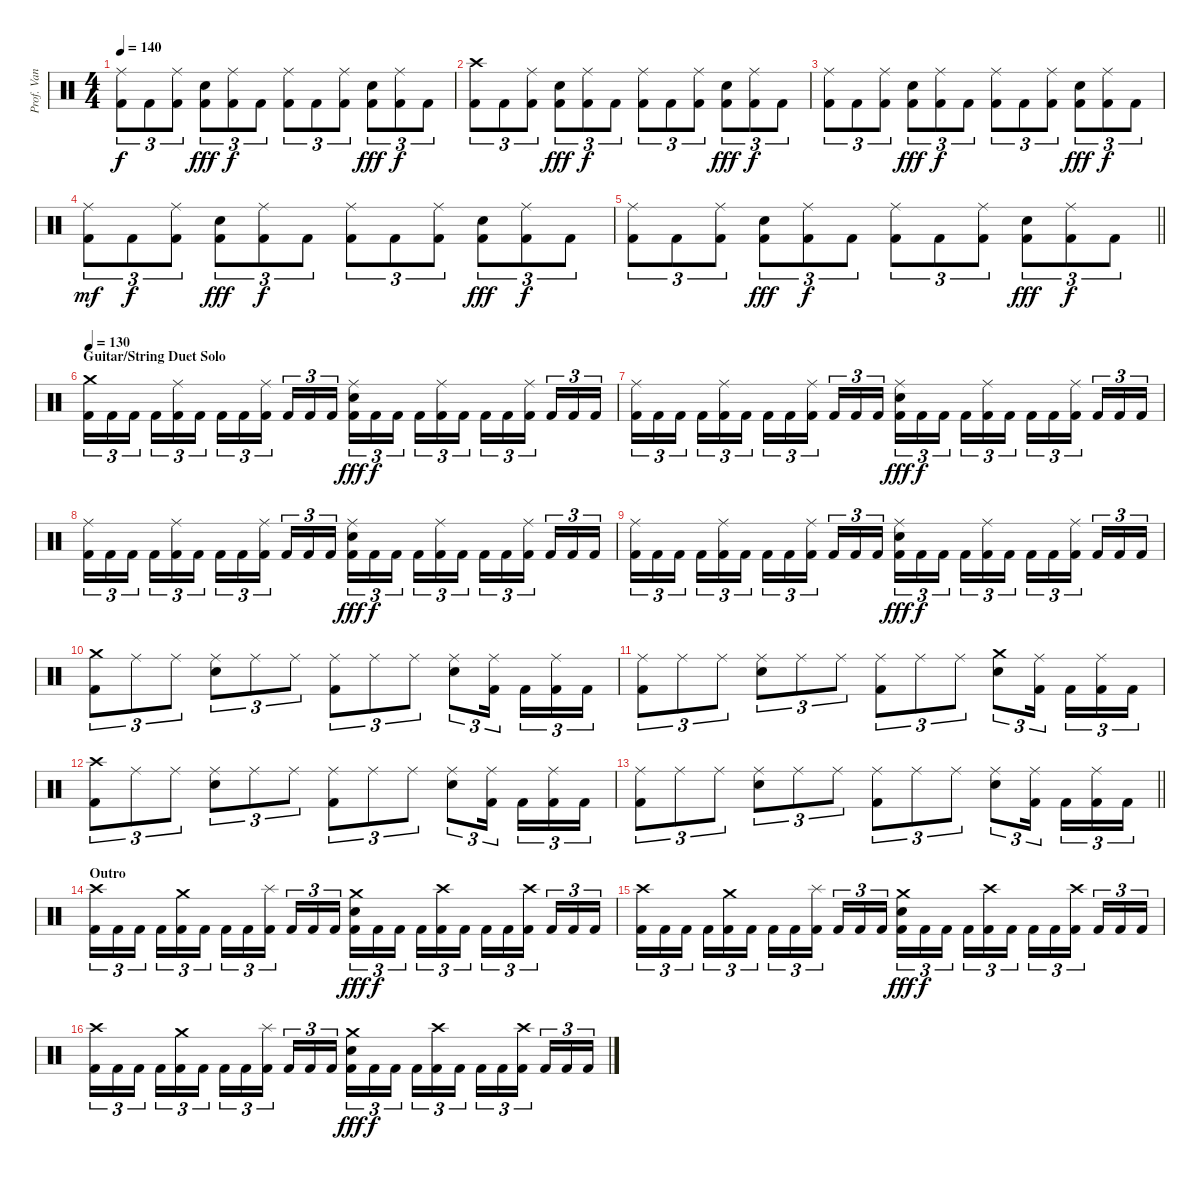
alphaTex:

\track ("Prof. Van Helsing (Drums)" "Prof. Van ") {instrument percussion}
\staff {score}
\articulation defaults
\ts (4 4)
\tempo 140
\clef neutral
\ks c
("Ride (middle)" "Kick (hit) 2").8{tu (3 2) dy f} "Kick (hit) 2".8{tu (3 2)} ("Ride (middle)" "Kick (hit) 2").8{tu (3 2)} ("Snare (hit) 2" "Kick (hit) 2").8{tu (3 2) dy fff} ("Ride (middle)" "Kick (hit) 2").8{tu (3 2) dy f} "Kick (hit) 2".8{tu (3 2)} ("Ride (middle)" "Kick (hit) 2").8{tu (3 2)} "Kick (hit) 2".8{tu (3 2)} ("Ride (middle)" "Kick (hit) 2").8{tu (3 2)} ("Snare (hit) 2" "Kick (hit) 2").8{tu (3 2) dy fff} ("Ride (middle)" "Kick (hit) 2").8{tu (3 2) dy f} "Kick (hit) 2".8{tu (3 2)} |
("Crash high (hit)" "Kick (hit) 2").8{tu (3 2)} "Kick (hit) 2".8{tu (3 2)} ("Ride (middle)" "Kick (hit) 2").8{tu (3 2)} ("Snare (hit) 2" "Kick (hit) 2").8{tu (3 2) dy fff} ("Ride (middle)" "Kick (hit) 2").8{tu (3 2) dy f} "Kick (hit) 2".8{tu (3 2)} ("Ride (middle)" "Kick (hit) 2").8{tu (3 2)} "Kick (hit) 2".8{tu (3 2)} ("Ride (middle)" "Kick (hit) 2").8{tu (3 2)} ("Snare (hit) 2" "Kick (hit) 2").8{tu (3 2) dy fff} ("Ride (middle)" "Kick (hit) 2").8{tu (3 2) dy f} "Kick (hit) 2".8{tu (3 2)} |
("Ride (middle)" "Kick (hit) 2").8{tu (3 2)} "Kick (hit) 2".8{tu (3 2)} ("Ride (middle)" "Kick (hit) 2").8{tu (3 2)} ("Snare (hit) 2" "Kick (hit) 2").8{tu (3 2) dy fff} ("Ride (middle)" "Kick (hit) 2").8{tu (3 2) dy f} "Kick (hit) 2".8{tu (3 2)} ("Ride (middle)" "Kick (hit) 2").8{tu (3 2)} "Kick (hit) 2".8{tu (3 2)} ("Ride (middle)" "Kick (hit) 2").8{tu (3 2)} ("Snare (hit) 2" "Kick (hit) 2").8{tu (3 2) dy fff} ("Ride (middle)" "Kick (hit) 2").8{tu (3 2) dy f} "Kick (hit) 2".8{tu (3 2)} |
("Ride (middle)" "Kick (hit) 2").8{tu (3 2) dy mf} "Kick (hit) 2".8{tu (3 2) dy f} ("Ride (middle)" "Kick (hit) 2").8{tu (3 2)} ("Snare (hit) 2" "Kick (hit) 2").8{tu (3 2) dy fff} ("Ride (middle)" "Kick (hit) 2").8{tu (3 2) dy f} "Kick (hit) 2".8{tu (3 2)} ("Ride (middle)" "Kick (hit) 2").8{tu (3 2)} "Kick (hit) 2".8{tu (3 2)} ("Ride (middle)" "Kick (hit) 2").8{tu (3 2)} ("Snare (hit) 2" "Kick (hit) 2").8{tu (3 2) dy fff} ("Ride (middle)" "Kick (hit) 2").8{tu (3 2) dy f} "Kick (hit) 2".8{tu (3 2)} |
\barLineRight lightlight
("Ride (middle)" "Kick (hit) 2").8{tu (3 2)} "Kick (hit) 2".8{tu (3 2)} ("Ride (middle)" "Kick (hit) 2").8{tu (3 2)} ("Snare (hit) 2" "Kick (hit) 2").8{tu (3 2) dy fff} ("Ride (middle)" "Kick (hit) 2").8{tu (3 2) dy f} "Kick (hit) 2".8{tu (3 2)} ("Ride (middle)" "Kick (hit) 2").8{tu (3 2)} "Kick (hit) 2".8{tu (3 2)} ("Ride (middle)" "Kick (hit) 2").8{tu (3 2)} ("Snare (hit) 2" "Kick (hit) 2").8{tu (3 2) dy fff} ("Ride (middle)" "Kick (hit) 2").8{tu (3 2) dy f} "Kick (hit) 2".8{tu (3 2)} |
\section ("" "Guitar/String Duet Solo")
\tempo 130
("Crash medium (hit)" "Kick (hit) 2").16{tu (3 2)} "Kick (hit) 2".16{tu (3 2)} "Kick (hit) 2".16{tu (3 2) beam splitsecondary} "Kick (hit) 2".16{tu (3 2)} ("Ride (middle)" "Kick (hit) 2").16{tu (3 2)} "Kick (hit) 2".16{tu (3 2)} "Kick (hit) 2".16{tu (3 2)} "Kick (hit) 2".16{tu (3 2)} ("Ride (middle)" "Kick (hit) 2").16{tu (3 2) beam splitsecondary} "Kick (hit) 2".16{tu (3 2)} "Kick (hit) 2".16{tu (3 2)} "Kick (hit) 2".16{tu (3 2)} ("Ride (middle)" "Snare (hit) 2" "Kick (hit) 2").16{tu (3 2) dy fff} "Kick (hit) 2".16{tu (3 2) dy f} "Kick (hit) 2".16{tu (3 2) beam splitsecondary} "Kick (hit) 2".16{tu (3 2)} ("Ride (middle)" "Kick (hit) 2").16{tu (3 2)} "Kick (hit) 2".16{tu (3 2)} "Kick (hit) 2".16{tu (3 2)} "Kick (hit) 2".16{tu (3 2)} ("Ride (middle)" "Kick (hit) 2").16{tu (3 2) beam splitsecondary} "Kick (hit) 2".16{tu (3 2)} "Kick (hit) 2".16{tu (3 2)} "Kick (hit) 2".16{tu (3 2)} |
("Ride (middle)" "Kick (hit) 2").16{tu (3 2)} "Kick (hit) 2".16{tu (3 2)} "Kick (hit) 2".16{tu (3 2) beam splitsecondary} "Kick (hit) 2".16{tu (3 2)} ("Ride (middle)" "Kick (hit) 2").16{tu (3 2)} "Kick (hit) 2".16{tu (3 2)} "Kick (hit) 2".16{tu (3 2)} "Kick (hit) 2".16{tu (3 2)} ("Ride (middle)" "Kick (hit) 2").16{tu (3 2) beam splitsecondary} "Kick (hit) 2".16{tu (3 2)} "Kick (hit) 2".16{tu (3 2)} "Kick (hit) 2".16{tu (3 2)} ("Ride (middle)" "Snare (hit) 2" "Kick (hit) 2").16{tu (3 2) dy fff} "Kick (hit) 2".16{tu (3 2) dy f} "Kick (hit) 2".16{tu (3 2) beam splitsecondary} "Kick (hit) 2".16{tu (3 2)} ("Ride (middle)" "Kick (hit) 2").16{tu (3 2)} "Kick (hit) 2".16{tu (3 2)} "Kick (hit) 2".16{tu (3 2)} "Kick (hit) 2".16{tu (3 2)} ("Ride (middle)" "Kick (hit) 2").16{tu (3 2) beam splitsecondary} "Kick (hit) 2".16{tu (3 2)} "Kick (hit) 2".16{tu (3 2)} "Kick (hit) 2".16{tu (3 2)} |
("Ride (middle)" "Kick (hit) 2").16{tu (3 2)} "Kick (hit) 2".16{tu (3 2)} "Kick (hit) 2".16{tu (3 2) beam splitsecondary} "Kick (hit) 2".16{tu (3 2)} ("Ride (middle)" "Kick (hit) 2").16{tu (3 2)} "Kick (hit) 2".16{tu (3 2)} "Kick (hit) 2".16{tu (3 2)} "Kick (hit) 2".16{tu (3 2)} ("Ride (middle)" "Kick (hit) 2").16{tu (3 2) beam splitsecondary} "Kick (hit) 2".16{tu (3 2)} "Kick (hit) 2".16{tu (3 2)} "Kick (hit) 2".16{tu (3 2)} ("Ride (middle)" "Snare (hit) 2" "Kick (hit) 2").16{tu (3 2) dy fff} "Kick (hit) 2".16{tu (3 2) dy f} "Kick (hit) 2".16{tu (3 2) beam splitsecondary} "Kick (hit) 2".16{tu (3 2)} ("Ride (middle)" "Kick (hit) 2").16{tu (3 2)} "Kick (hit) 2".16{tu (3 2)} "Kick (hit) 2".16{tu (3 2)} "Kick (hit) 2".16{tu (3 2)} ("Ride (middle)" "Kick (hit) 2").16{tu (3 2) beam splitsecondary} "Kick (hit) 2".16{tu (3 2)} "Kick (hit) 2".16{tu (3 2)} "Kick (hit) 2".16{tu (3 2)} |
("Ride (middle)" "Kick (hit) 2").16{tu (3 2)} "Kick (hit) 2".16{tu (3 2)} "Kick (hit) 2".16{tu (3 2) beam splitsecondary} "Kick (hit) 2".16{tu (3 2)} ("Ride (middle)" "Kick (hit) 2").16{tu (3 2)} "Kick (hit) 2".16{tu (3 2)} "Kick (hit) 2".16{tu (3 2)} "Kick (hit) 2".16{tu (3 2)} ("Ride (middle)" "Kick (hit) 2").16{tu (3 2) beam splitsecondary} "Kick (hit) 2".16{tu (3 2)} "Kick (hit) 2".16{tu (3 2)} "Kick (hit) 2".16{tu (3 2)} ("Ride (middle)" "Snare (hit) 2" "Kick (hit) 2").16{tu (3 2) dy fff} "Kick (hit) 2".16{tu (3 2) dy f} "Kick (hit) 2".16{tu (3 2) beam splitsecondary} "Kick (hit) 2".16{tu (3 2)} ("Ride (middle)" "Kick (hit) 2").16{tu (3 2)} "Kick (hit) 2".16{tu (3 2)} "Kick (hit) 2".16{tu (3 2)} "Kick (hit) 2".16{tu (3 2)} ("Ride (middle)" "Kick (hit) 2").16{tu (3 2) beam splitsecondary} "Kick (hit) 2".16{tu (3 2)} "Kick (hit) 2".16{tu (3 2)} "Kick (hit) 2".16{tu (3 2)} |
("Crash medium (hit)" "Kick (hit) 2").8{tu (3 2)} "Ride (middle)".8{tu (3 2)} "Ride (middle)".8{tu (3 2)} ("Ride (middle)" "Snare (hit) 2").8{tu (3 2)} "Ride (middle)".8{tu (3 2)} "Ride (middle)".8{tu (3 2)} ("Ride (middle)" "Kick (hit) 2").8{tu (3 2)} "Ride (middle)".8{tu (3 2)} "Ride (middle)".8{tu (3 2)} ("Ride (middle)" "Snare (hit) 2").8{tu (3 2)} ("Ride (middle)" "Kick (hit) 2").16{tu (3 2) beam splitsecondary} "Kick (hit) 2".16{tu (3 2)} ("Ride (middle)" "Kick (hit) 2").16{tu (3 2)} "Kick (hit) 2".16{tu (3 2)} |
("Ride (middle)" "Kick (hit) 2").8{tu (3 2)} "Ride (middle)".8{tu (3 2)} "Ride (middle)".8{tu (3 2)} ("Ride (middle)" "Snare (hit) 2").8{tu (3 2)} "Ride (middle)".8{tu (3 2)} "Ride (middle)".8{tu (3 2)} ("Ride (middle)" "Kick (hit) 2").8{tu (3 2)} "Ride (middle)".8{tu (3 2)} "Ride (middle)".8{tu (3 2)} ("Crash medium (hit)" "Snare (hit) 2").8{tu (3 2)} ("Ride (middle)" "Kick (hit) 2").16{tu (3 2) beam splitsecondary} "Kick (hit) 2".16{tu (3 2)} ("Ride (middle)" "Kick (hit) 2").16{tu (3 2)} "Kick (hit) 2".16{tu (3 2)} |
("Crash high (hit)" "Kick (hit) 2").8{tu (3 2)} "Ride (middle)".8{tu (3 2)} "Ride (middle)".8{tu (3 2)} ("Ride (middle)" "Snare (hit) 2").8{tu (3 2)} "Ride (middle)".8{tu (3 2)} "Ride (middle)".8{tu (3 2)} ("Ride (middle)" "Kick (hit) 2").8{tu (3 2)} "Ride (middle)".8{tu (3 2)} "Ride (middle)".8{tu (3 2)} ("Ride (middle)" "Snare (hit) 2").8{tu (3 2)} ("Ride (middle)" "Kick (hit) 2").16{tu (3 2) beam splitsecondary} "Kick (hit) 2".16{tu (3 2)} ("Ride (middle)" "Kick (hit) 2").16{tu (3 2)} "Kick (hit) 2".16{tu (3 2)} |
\barLineRight lightlight
("Ride (middle)" "Kick (hit) 2").8{tu (3 2)} "Ride (middle)".8{tu (3 2)} "Ride (middle)".8{tu (3 2)} ("Ride (middle)" "Snare (hit) 2").8{tu (3 2)} "Ride (middle)".8{tu (3 2)} "Ride (middle)".8{tu (3 2)} ("Ride (middle)" "Kick (hit) 2").8{tu (3 2)} "Ride (middle)".8{tu (3 2)} "Ride (middle)".8{tu (3 2)} ("Ride (middle)" "Snare (hit) 2").8{tu (3 2)} ("Ride (middle)" "Kick (hit) 2").16{tu (3 2) beam splitsecondary} "Kick (hit) 2".16{tu (3 2)} ("Ride (middle)" "Kick (hit) 2").16{tu (3 2)} "Kick (hit) 2".16{tu (3 2)} |
\section ("" "Outro")
("Crash high (hit)" "Kick (hit) 2").16{tu (3 2)} "Kick (hit) 2".16{tu (3 2)} "Kick (hit) 2".16{tu (3 2) beam splitsecondary} "Kick (hit) 2".16{tu (3 2)} ("Crash medium (hit)" "Kick (hit) 2").16{tu (3 2)} "Kick (hit) 2".16{tu (3 2)} "Kick (hit) 2".16{tu (3 2)} "Kick (hit) 2".16{tu (3 2)} ("Splash (hit)" "Kick (hit) 2").16{tu (3 2) beam splitsecondary} "Kick (hit) 2".16{tu (3 2)} "Kick (hit) 2".16{tu (3 2)} "Kick (hit) 2".16{tu (3 2)} ("Crash medium (hit)" "Snare (hit) 2" "Kick (hit) 2").16{tu (3 2) dy fff} "Kick (hit) 2".16{tu (3 2) dy f} "Kick (hit) 2".16{tu (3 2) beam splitsecondary} "Kick (hit) 2".16{tu (3 2)} ("Crash high (hit)" "Kick (hit) 2").16{tu (3 2)} "Kick (hit) 2".16{tu (3 2)} "Kick (hit) 2".16{tu (3 2)} "Kick (hit) 2".16{tu (3 2)} ("Crash high (hit)" "Kick (hit) 2").16{tu (3 2) beam splitsecondary} "Kick (hit) 2".16{tu (3 2)} "Kick (hit) 2".16{tu (3 2)} "Kick (hit) 2".16{tu (3 2)} |
("Crash high (hit)" "Kick (hit) 2").16{tu (3 2)} "Kick (hit) 2".16{tu (3 2)} "Kick (hit) 2".16{tu (3 2) beam splitsecondary} "Kick (hit) 2".16{tu (3 2)} ("Crash medium (hit)" "Kick (hit) 2").16{tu (3 2)} "Kick (hit) 2".16{tu (3 2)} "Kick (hit) 2".16{tu (3 2)} "Kick (hit) 2".16{tu (3 2)} ("Splash (hit)" "Kick (hit) 2").16{tu (3 2) beam splitsecondary} "Kick (hit) 2".16{tu (3 2)} "Kick (hit) 2".16{tu (3 2)} "Kick (hit) 2".16{tu (3 2)} ("Crash medium (hit)" "Snare (hit) 2" "Kick (hit) 2").16{tu (3 2) dy fff} "Kick (hit) 2".16{tu (3 2) dy f} "Kick (hit) 2".16{tu (3 2) beam splitsecondary} "Kick (hit) 2".16{tu (3 2)} ("Crash high (hit)" "Kick (hit) 2").16{tu (3 2)} "Kick (hit) 2".16{tu (3 2)} "Kick (hit) 2".16{tu (3 2)} "Kick (hit) 2".16{tu (3 2)} ("Crash high (hit)" "Kick (hit) 2").16{tu (3 2) beam splitsecondary} "Kick (hit) 2".16{tu (3 2)} "Kick (hit) 2".16{tu (3 2)} "Kick (hit) 2".16{tu (3 2)} |
("Crash high (hit)" "Kick (hit) 2").16{tu (3 2)} "Kick (hit) 2".16{tu (3 2)} "Kick (hit) 2".16{tu (3 2) beam splitsecondary} "Kick (hit) 2".16{tu (3 2)} ("Crash medium (hit)" "Kick (hit) 2").16{tu (3 2)} "Kick (hit) 2".16{tu (3 2)} "Kick (hit) 2".16{tu (3 2)} "Kick (hit) 2".16{tu (3 2)} ("Splash (hit)" "Kick (hit) 2").16{tu (3 2) beam splitsecondary} "Kick (hit) 2".16{tu (3 2)} "Kick (hit) 2".16{tu (3 2)} "Kick (hit) 2".16{tu (3 2)} ("Crash medium (hit)" "Snare (hit) 2" "Kick (hit) 2").16{tu (3 2) dy fff} "Kick (hit) 2".16{tu (3 2) dy f} "Kick (hit) 2".16{tu (3 2) beam splitsecondary} "Kick (hit) 2".16{tu (3 2)} ("Crash high (hit)" "Kick (hit) 2").16{tu (3 2)} "Kick (hit) 2".16{tu (3 2)} "Kick (hit) 2".16{tu (3 2)} "Kick (hit) 2".16{tu (3 2)} ("Crash high (hit)" "Kick (hit) 2").16{tu (3 2) beam splitsecondary} "Kick (hit) 2".16{tu (3 2)} "Kick (hit) 2".16{tu (3 2)} "Kick (hit) 2".16{tu (3 2)}
